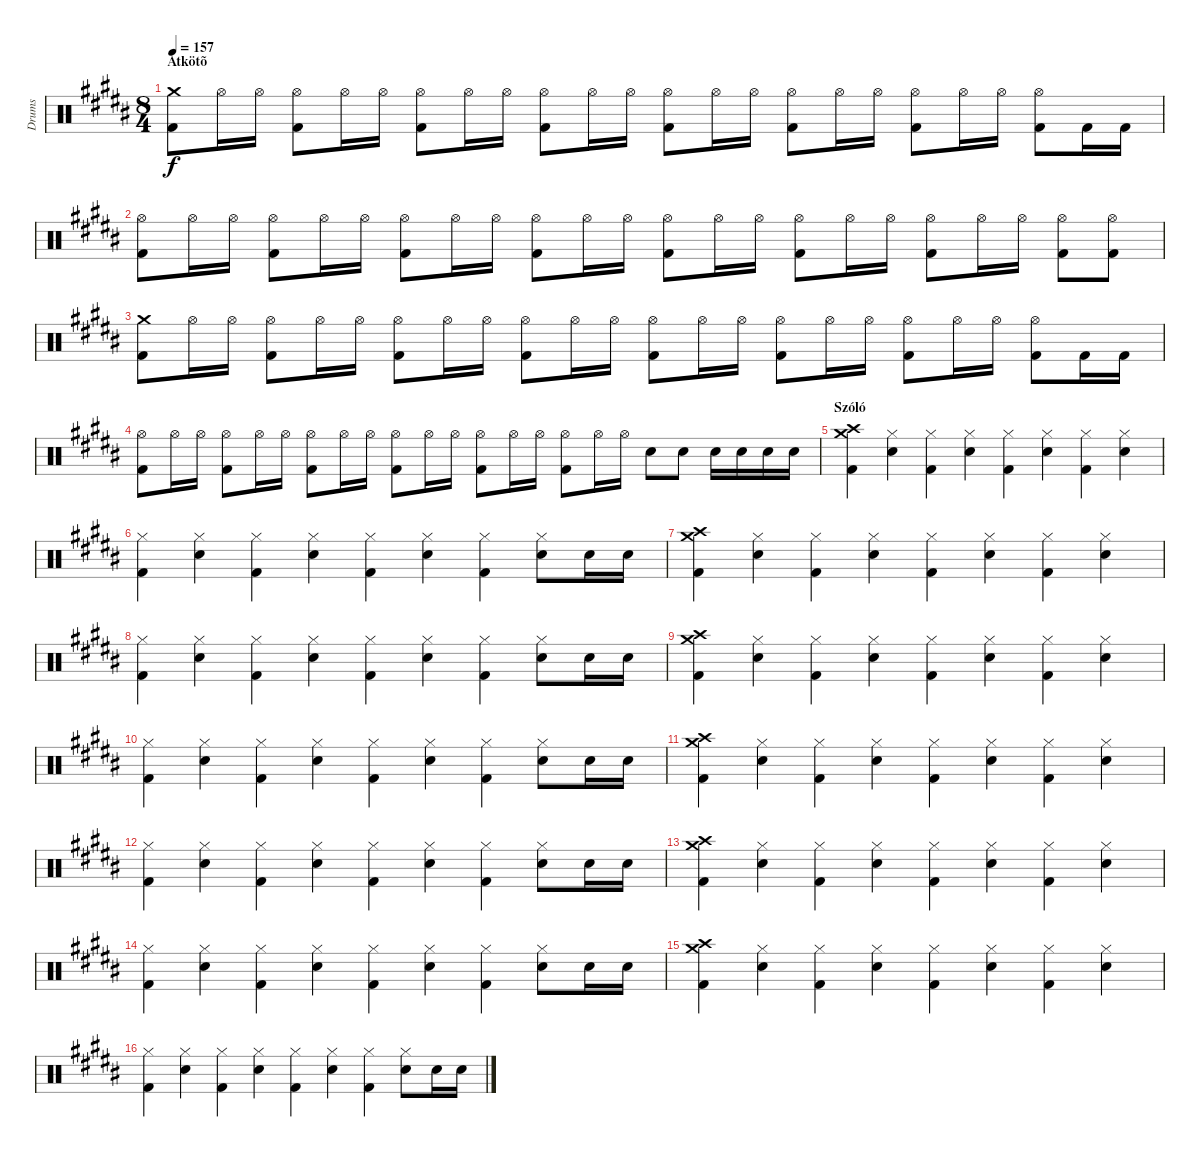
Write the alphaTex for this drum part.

\track ("Drums" "Drums") {instrument percussion}
\staff {score}
\articulation defaults
\ts (8 4)
\section ("" "Átkötõ")
\tempo 157
\clef neutral
\ks g#minor
("Crash medium (hit)" "Kick (hit) 2").8{dy f} "Hi-Hat (open)".16 "Hi-Hat (open)".16 ("Hi-Hat (open)" "Kick (hit) 2").8 "Hi-Hat (open)".16 "Hi-Hat (open)".16 ("Hi-Hat (open)" "Kick (hit) 2").8 "Hi-Hat (open)".16 "Hi-Hat (open)".16 ("Hi-Hat (open)" "Kick (hit) 2").8 "Hi-Hat (open)".16 "Hi-Hat (open)".16 ("Hi-Hat (open)" "Kick (hit) 2").8 "Hi-Hat (open)".16 "Hi-Hat (open)".16 ("Hi-Hat (open)" "Kick (hit) 2").8 "Hi-Hat (open)".16 "Hi-Hat (open)".16 ("Hi-Hat (open)" "Kick (hit) 2").8 "Hi-Hat (open)".16 "Hi-Hat (open)".16 ("Hi-Hat (open)" "Kick (hit) 2").8 "Kick (hit) 2".16 "Kick (hit) 2".16 |
("Hi-Hat (open)" "Kick (hit) 2").8 "Hi-Hat (open)".16 "Hi-Hat (open)".16 ("Hi-Hat (open)" "Kick (hit) 2").8 "Hi-Hat (open)".16 "Hi-Hat (open)".16 ("Hi-Hat (open)" "Kick (hit) 2").8 "Hi-Hat (open)".16 "Hi-Hat (open)".16 ("Hi-Hat (open)" "Kick (hit) 2").8 "Hi-Hat (open)".16 "Hi-Hat (open)".16 ("Hi-Hat (open)" "Kick (hit) 2").8 "Hi-Hat (open)".16 "Hi-Hat (open)".16 ("Hi-Hat (open)" "Kick (hit) 2").8 "Hi-Hat (open)".16 "Hi-Hat (open)".16 ("Hi-Hat (open)" "Kick (hit) 2").8 "Hi-Hat (open)".16 "Hi-Hat (open)".16 ("Hi-Hat (open)" "Kick (hit) 2").8 ("Hi-Hat (open)" "Kick (hit) 2").8 |
("Crash medium (hit)" "Kick (hit) 2").8 "Hi-Hat (open)".16 "Hi-Hat (open)".16 ("Hi-Hat (open)" "Kick (hit) 2").8 "Hi-Hat (open)".16 "Hi-Hat (open)".16 ("Hi-Hat (open)" "Kick (hit) 2").8 "Hi-Hat (open)".16 "Hi-Hat (open)".16 ("Hi-Hat (open)" "Kick (hit) 2").8 "Hi-Hat (open)".16 "Hi-Hat (open)".16 ("Hi-Hat (open)" "Kick (hit) 2").8 "Hi-Hat (open)".16 "Hi-Hat (open)".16 ("Hi-Hat (open)" "Kick (hit) 2").8 "Hi-Hat (open)".16 "Hi-Hat (open)".16 ("Hi-Hat (open)" "Kick (hit) 2").8 "Hi-Hat (open)".16 "Hi-Hat (open)".16 ("Hi-Hat (open)" "Kick (hit) 2").8 "Kick (hit) 2".16 "Kick (hit) 2".16 |
("Hi-Hat (open)" "Kick (hit) 2").8 "Hi-Hat (open)".16 "Hi-Hat (open)".16 ("Hi-Hat (open)" "Kick (hit) 2").8 "Hi-Hat (open)".16 "Hi-Hat (open)".16 ("Hi-Hat (open)" "Kick (hit) 2").8 "Hi-Hat (open)".16 "Hi-Hat (open)".16 ("Hi-Hat (open)" "Kick (hit) 2").8 "Hi-Hat (open)".16 "Hi-Hat (open)".16 ("Hi-Hat (open)" "Kick (hit) 2").8 "Hi-Hat (open)".16 "Hi-Hat (open)".16 ("Hi-Hat (open)" "Kick (hit) 2").8 "Hi-Hat (open)".16 "Hi-Hat (open)".16 "Snare (hit) 2".8 "Snare (hit) 2".8 "Snare (hit) 2".16 "Snare (hit) 2".16 "Snare (hit) 2".16 "Snare (hit) 2".16 |
\section ("" "Szóló")
("Crash medium (hit)" "Crash high (hit)" "Kick (hit) 2").4 ("Hi-Hat (closed)" "Snare (hit) 2").4 ("Hi-Hat (closed)" "Kick (hit) 2").4 ("Hi-Hat (closed)" "Snare (hit) 2").4 ("Hi-Hat (closed)" "Kick (hit) 2").4 ("Hi-Hat (closed)" "Snare (hit) 2").4 ("Hi-Hat (closed)" "Kick (hit) 2").4 ("Hi-Hat (closed)" "Snare (hit) 2").4 |
("Hi-Hat (closed)" "Kick (hit) 2").4 ("Hi-Hat (closed)" "Snare (hit) 2").4 ("Hi-Hat (closed)" "Kick (hit) 2").4 ("Hi-Hat (closed)" "Snare (hit) 2").4 ("Hi-Hat (closed)" "Kick (hit) 2").4 ("Hi-Hat (closed)" "Snare (hit) 2").4 ("Hi-Hat (closed)" "Kick (hit) 2").4 ("Hi-Hat (closed)" "Snare (hit) 2").8 "Snare (hit) 2".16 "Snare (hit) 2".16 |
("Crash medium (hit)" "Crash high (hit)" "Kick (hit) 2").4 ("Hi-Hat (closed)" "Snare (hit) 2").4 ("Hi-Hat (closed)" "Kick (hit) 2").4 ("Hi-Hat (closed)" "Snare (hit) 2").4 ("Hi-Hat (closed)" "Kick (hit) 2").4 ("Hi-Hat (closed)" "Snare (hit) 2").4 ("Hi-Hat (closed)" "Kick (hit) 2").4 ("Hi-Hat (closed)" "Snare (hit) 2").4 |
("Hi-Hat (closed)" "Kick (hit) 2").4 ("Hi-Hat (closed)" "Snare (hit) 2").4 ("Hi-Hat (closed)" "Kick (hit) 2").4 ("Hi-Hat (closed)" "Snare (hit) 2").4 ("Hi-Hat (closed)" "Kick (hit) 2").4 ("Hi-Hat (closed)" "Snare (hit) 2").4 ("Hi-Hat (closed)" "Kick (hit) 2").4 ("Hi-Hat (closed)" "Snare (hit) 2").8 "Snare (hit) 2".16 "Snare (hit) 2".16 |
("Crash medium (hit)" "Crash high (hit)" "Kick (hit) 2").4 ("Hi-Hat (closed)" "Snare (hit) 2").4 ("Hi-Hat (closed)" "Kick (hit) 2").4 ("Hi-Hat (closed)" "Snare (hit) 2").4 ("Hi-Hat (closed)" "Kick (hit) 2").4 ("Hi-Hat (closed)" "Snare (hit) 2").4 ("Hi-Hat (closed)" "Kick (hit) 2").4 ("Hi-Hat (closed)" "Snare (hit) 2").4 |
("Hi-Hat (closed)" "Kick (hit) 2").4 ("Hi-Hat (closed)" "Snare (hit) 2").4 ("Hi-Hat (closed)" "Kick (hit) 2").4 ("Hi-Hat (closed)" "Snare (hit) 2").4 ("Hi-Hat (closed)" "Kick (hit) 2").4 ("Hi-Hat (closed)" "Snare (hit) 2").4 ("Hi-Hat (closed)" "Kick (hit) 2").4 ("Hi-Hat (closed)" "Snare (hit) 2").8 "Snare (hit) 2".16 "Snare (hit) 2".16 |
("Crash medium (hit)" "Crash high (hit)" "Kick (hit) 2").4 ("Hi-Hat (closed)" "Snare (hit) 2").4 ("Hi-Hat (closed)" "Kick (hit) 2").4 ("Hi-Hat (closed)" "Snare (hit) 2").4 ("Hi-Hat (closed)" "Kick (hit) 2").4 ("Hi-Hat (closed)" "Snare (hit) 2").4 ("Hi-Hat (closed)" "Kick (hit) 2").4 ("Hi-Hat (closed)" "Snare (hit) 2").4 |
("Hi-Hat (closed)" "Kick (hit) 2").4 ("Hi-Hat (closed)" "Snare (hit) 2").4 ("Hi-Hat (closed)" "Kick (hit) 2").4 ("Hi-Hat (closed)" "Snare (hit) 2").4 ("Hi-Hat (closed)" "Kick (hit) 2").4 ("Hi-Hat (closed)" "Snare (hit) 2").4 ("Hi-Hat (closed)" "Kick (hit) 2").4 ("Hi-Hat (closed)" "Snare (hit) 2").8 "Snare (hit) 2".16 "Snare (hit) 2".16 |
("Crash medium (hit)" "Crash high (hit)" "Kick (hit) 2").4 ("Hi-Hat (closed)" "Snare (hit) 2").4 ("Hi-Hat (closed)" "Kick (hit) 2").4 ("Hi-Hat (closed)" "Snare (hit) 2").4 ("Hi-Hat (closed)" "Kick (hit) 2").4 ("Hi-Hat (closed)" "Snare (hit) 2").4 ("Hi-Hat (closed)" "Kick (hit) 2").4 ("Hi-Hat (closed)" "Snare (hit) 2").4 |
("Hi-Hat (closed)" "Kick (hit) 2").4 ("Hi-Hat (closed)" "Snare (hit) 2").4 ("Hi-Hat (closed)" "Kick (hit) 2").4 ("Hi-Hat (closed)" "Snare (hit) 2").4 ("Hi-Hat (closed)" "Kick (hit) 2").4 ("Hi-Hat (closed)" "Snare (hit) 2").4 ("Hi-Hat (closed)" "Kick (hit) 2").4 ("Hi-Hat (closed)" "Snare (hit) 2").8 "Snare (hit) 2".16 "Snare (hit) 2".16 |
("Crash medium (hit)" "Crash high (hit)" "Kick (hit) 2").4 ("Hi-Hat (closed)" "Snare (hit) 2").4 ("Hi-Hat (closed)" "Kick (hit) 2").4 ("Hi-Hat (closed)" "Snare (hit) 2").4 ("Hi-Hat (closed)" "Kick (hit) 2").4 ("Hi-Hat (closed)" "Snare (hit) 2").4 ("Hi-Hat (closed)" "Kick (hit) 2").4 ("Hi-Hat (closed)" "Snare (hit) 2").4 |
("Hi-Hat (closed)" "Kick (hit) 2").4 ("Hi-Hat (closed)" "Snare (hit) 2").4 ("Hi-Hat (closed)" "Kick (hit) 2").4 ("Hi-Hat (closed)" "Snare (hit) 2").4 ("Hi-Hat (closed)" "Kick (hit) 2").4 ("Hi-Hat (closed)" "Snare (hit) 2").4 ("Hi-Hat (closed)" "Kick (hit) 2").4 ("Hi-Hat (closed)" "Snare (hit) 2").8 "Snare (hit) 2".16 "Snare (hit) 2".16
